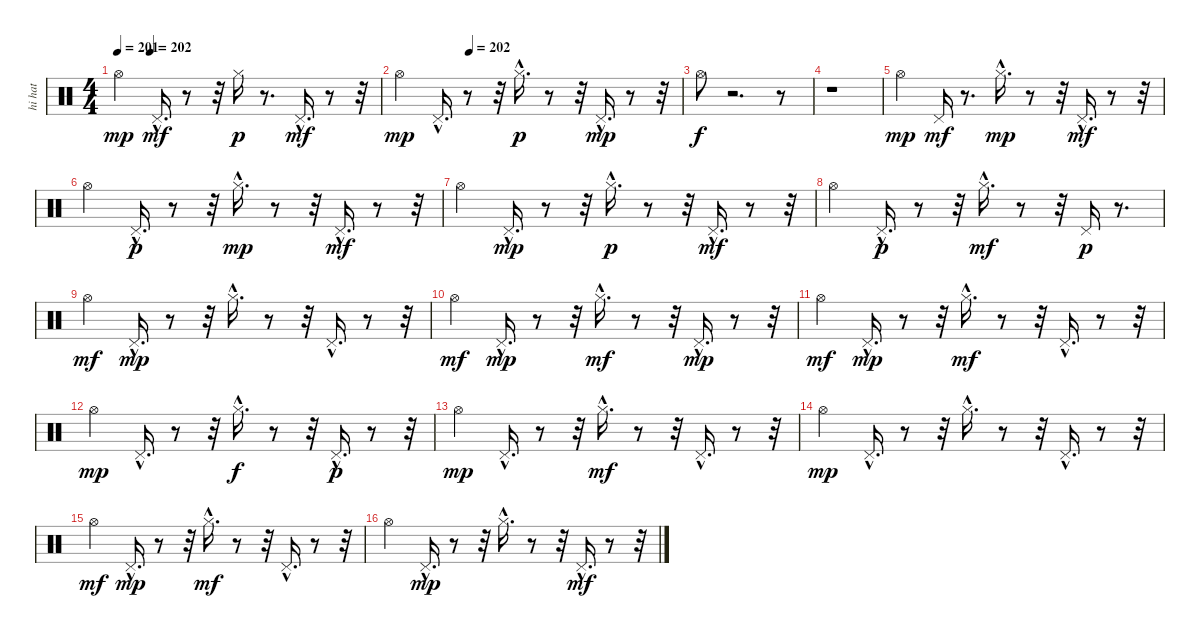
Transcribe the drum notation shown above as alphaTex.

\track ("hi hat" "hi hat") {instrument percussion}
\staff {score}
\articulation defaults
\ts (4 4)
\tempo 201
\tempo (202 0.125)
\clef neutral
\ks c "Hi-Hat (open)".4{dy mp} "Pedal Hi-Hat (hit)"{hac}.16{d dy mf}
r.8 r.32 "Hi-Hat (closed)".16{dy p} r.8{d} "Pedal Hi-Hat (hit)"{hac}.16{d dy mf} r.8 r.32 |
\tempo (202 0.25)
"Hi-Hat (open)".4{dy mp} "Pedal Hi-Hat (hit)"{hac}.16{d} r.8 r.32 "Hi-Hat (closed)"{hac}.16{d dy p} r.8 r.32 "Pedal Hi-Hat (hit)"{hac}.16{d dy mp} r.8 r.32 |
"Hi-Hat (open)".8{dy f} r.2{d} r.8 |
r.1 |
"Hi-Hat (open)".4{dy mp} "Pedal Hi-Hat (hit)".16{dy mf} r.8{d} "Hi-Hat (closed)"{hac}.16{d dy mp} r.8 r.32 "Pedal Hi-Hat (hit)"{hac}.16{d dy mf} r.8 r.32 |
"Hi-Hat (open)".4 "Pedal Hi-Hat (hit)"{hac}.16{d dy p} r.8 r.32 "Hi-Hat (closed)"{hac}.16{d dy mp} r.8 r.32 "Pedal Hi-Hat (hit)"{hac}.16{d dy mf} r.8 r.32 |
"Hi-Hat (open)".4 "Pedal Hi-Hat (hit)"{hac}.16{d dy mp} r.8 r.32 "Hi-Hat (closed)"{hac}.16{d dy p} r.8 r.32 "Pedal Hi-Hat (hit)"{hac}.16{d dy mf} r.8 r.32 |
"Hi-Hat (open)".4 "Pedal Hi-Hat (hit)"{hac}.16{d dy p} r.8 r.32 "Hi-Hat (closed)"{hac}.16{d dy mf} r.8 r.32 "Pedal Hi-Hat (hit)".16{dy p} r.8{d} |
"Hi-Hat (open)".4{dy mf} "Pedal Hi-Hat (hit)"{hac}.16{d dy mp} r.8 r.32 "Hi-Hat (closed)"{hac}.16{d} r.8 r.32 "Pedal Hi-Hat (hit)"{hac}.16{d} r.8 r.32 |
"Hi-Hat (open)".4{dy mf} "Pedal Hi-Hat (hit)"{hac}.16{d dy mp} r.8 r.32 "Hi-Hat (closed)"{hac}.16{d dy mf} r.8 r.32 "Pedal Hi-Hat (hit)"{hac}.16{d dy mp} r.8 r.32 |
"Hi-Hat (open)".4{dy mf} "Pedal Hi-Hat (hit)"{hac}.16{d dy mp} r.8 r.32 "Hi-Hat (closed)"{hac}.16{d dy mf} r.8 r.32 "Pedal Hi-Hat (hit)"{hac}.16{d} r.8 r.32 |
"Hi-Hat (open)".4{dy mp} "Pedal Hi-Hat (hit)"{hac}.16{d} r.8 r.32 "Hi-Hat (closed)"{hac}.16{d dy f} r.8 r.32 "Pedal Hi-Hat (hit)"{hac}.16{d dy p} r.8 r.32 |
"Hi-Hat (open)".4{dy mp} "Pedal Hi-Hat (hit)"{hac}.16{d} r.8 r.32 "Hi-Hat (closed)"{hac}.16{d dy mf} r.8 r.32 "Pedal Hi-Hat (hit)"{hac}.16{d} r.8 r.32 |
"Hi-Hat (open)".4{dy mp} "Pedal Hi-Hat (hit)"{hac}.16{d} r.8 r.32 "Hi-Hat (closed)"{hac}.16{d} r.8 r.32 "Pedal Hi-Hat (hit)"{hac}.16{d} r.8 r.32 |
"Hi-Hat (open)".4{dy mf} "Pedal Hi-Hat (hit)"{hac}.16{d dy mp} r.8 r.32 "Hi-Hat (closed)"{hac}.16{d dy mf} r.8 r.32 "Pedal Hi-Hat (hit)"{hac}.16{d} r.8 r.32 |
"Hi-Hat (open)".4 "Pedal Hi-Hat (hit)"{hac}.16{d dy mp} r.8 r.32 "Hi-Hat (closed)"{hac}.16{d} r.8 r.32 "Pedal Hi-Hat (hit)"{hac}.16{d dy mf} r.8 r.32
